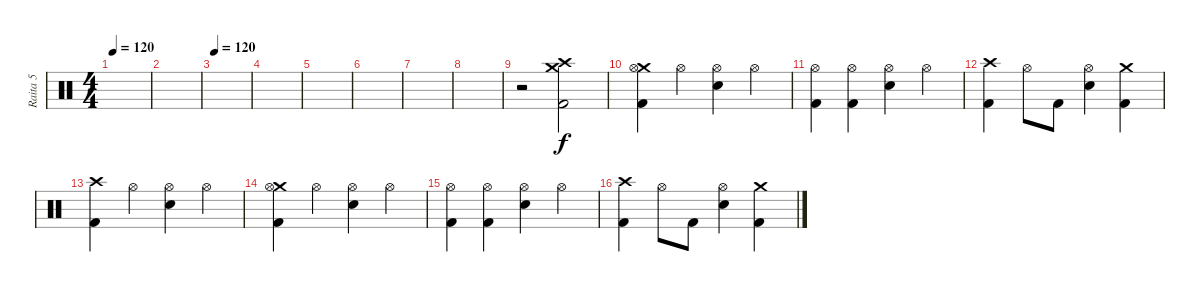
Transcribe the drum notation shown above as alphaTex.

\track ("Raita 5" "Raita 5") {instrument percussion}
\staff {score}
\articulation defaults
\ts (4 4)
\tempo 120
\clef neutral
\ks c
|
|
\tempo 120
|
|
|
|
|
|
r.2 ("Crash medium (hit)" "Crash high (hit)" "Kick (hit) 2").2 |
("Crash medium (hit)" "Hi-Hat (open)" "Kick (hit) 2").4 "Hi-Hat (open)".4 ("Hi-Hat (open)" "Snare (hit) 2").4 "Hi-Hat (open)".4 |
("Hi-Hat (open)" "Kick (hit) 2").4 ("Hi-Hat (open)" "Kick (hit) 2").4 ("Hi-Hat (open)" "Snare (hit) 2").4 "Hi-Hat (open)".4 |
("Crash high (hit)" "Kick (hit) 2").4 "Hi-Hat (open)".8 "Kick (hit) 2".8 ("Hi-Hat (open)" "Snare (hit) 2").4 ("Crash medium (hit)" "Kick (hit) 2").4 |
("Crash high (hit)" "Kick (hit) 2").4 "Hi-Hat (open)".4 ("Hi-Hat (open)" "Snare (hit) 2").4 "Hi-Hat (open)".4 |
("Crash medium (hit)" "Hi-Hat (open)" "Kick (hit) 2").4 "Hi-Hat (open)".4 ("Hi-Hat (open)" "Snare (hit) 2").4 "Hi-Hat (open)".4 |
("Hi-Hat (open)" "Kick (hit) 2").4 ("Hi-Hat (open)" "Kick (hit) 2").4 ("Hi-Hat (open)" "Snare (hit) 2").4 "Hi-Hat (open)".4 |
("Crash high (hit)" "Kick (hit) 2").4 "Hi-Hat (open)".8 "Kick (hit) 2".8 ("Hi-Hat (open)" "Snare (hit) 2").4 ("Crash medium (hit)" "Kick (hit) 2").4
